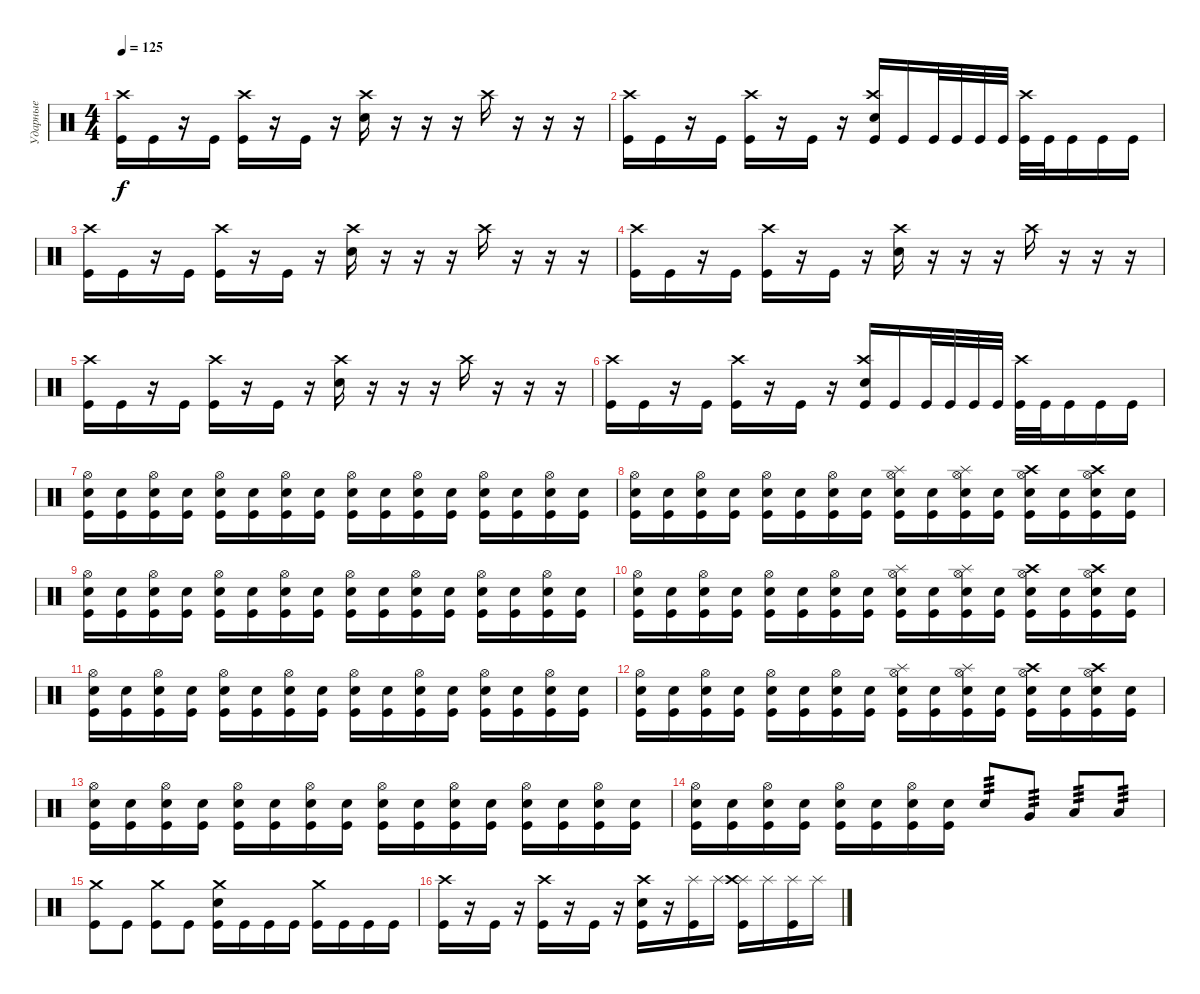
\track ("Ударные" "Ударные") {instrument percussion}
\staff {score}
\articulation defaults
\ts (4 4)
\tempo 125
\clef neutral
\ks c
("Kick (hit)" "Crash high (hit)").16{dy f} "Kick (hit)".16 r.16 "Kick (hit)".16 ("Kick (hit)" "Crash high (hit)").16 r.16 "Kick (hit)".16 r.16 ("Crash high (hit)" "Snare (hit) 2").16 r.16 r.16 r.16 "Crash high (hit)".16 r.16 r.16 r.16 |
("Kick (hit)" "Crash high (hit)").16 "Kick (hit)".16 r.16 "Kick (hit)".16 ("Kick (hit)" "Crash high (hit)").16 r.16 "Kick (hit)".16 r.16 ("Crash high (hit)" "Kick (hit)" "Snare (hit) 2").16 "Kick (hit)".16 "Kick (hit)".32 "Kick (hit)".32 "Kick (hit)".32 "Kick (hit)".32 ("Kick (hit)" "Crash high (hit)").32 "Kick (hit)".32 "Kick (hit)".16 "Kick (hit)".16 "Kick (hit)".16 |
("Kick (hit)" "Crash high (hit)").16 "Kick (hit)".16 r.16 "Kick (hit)".16 ("Kick (hit)" "Crash high (hit)").16 r.16 "Kick (hit)".16 r.16 ("Crash high (hit)" "Snare (hit) 2").16 r.16 r.16 r.16 "Crash high (hit)".16 r.16 r.16 r.16 |
("Kick (hit)" "Crash high (hit)").16 "Kick (hit)".16 r.16 "Kick (hit)".16 ("Kick (hit)" "Crash high (hit)").16 r.16 "Kick (hit)".16 r.16 ("Crash high (hit)" "Snare (hit) 2").16 r.16 r.16 r.16 "Crash high (hit)".16 r.16 r.16 r.16 |
("Kick (hit)" "Crash high (hit)").16 "Kick (hit)".16 r.16 "Kick (hit)".16 ("Kick (hit)" "Crash high (hit)").16 r.16 "Kick (hit)".16 r.16 ("Crash high (hit)" "Snare (hit) 2").16 r.16 r.16 r.16 "Crash high (hit)".16 r.16 r.16 r.16 |
("Kick (hit)" "Crash high (hit)").16 "Kick (hit)".16 r.16 "Kick (hit)".16 ("Kick (hit)" "Crash high (hit)").16 r.16 "Kick (hit)".16 r.16 ("Crash high (hit)" "Kick (hit)" "Snare (hit) 2").16 "Kick (hit)".16 "Kick (hit)".32 "Kick (hit)".32 "Kick (hit)".32 "Kick (hit)".32 ("Kick (hit)" "Crash high (hit)").32 "Kick (hit)".32 "Kick (hit)".16 "Kick (hit)".16 "Kick (hit)".16 |
("Kick (hit)" "Snare (hit) 2" "Hi-Hat (open)").16 ("Kick (hit)" "Snare (hit) 2").16 ("Kick (hit)" "Snare (hit) 2" "Hi-Hat (open)").16 ("Kick (hit)" "Snare (hit) 2").16 ("Kick (hit)" "Snare (hit) 2" "Hi-Hat (open)").16 ("Kick (hit)" "Snare (hit) 2").16 ("Kick (hit)" "Snare (hit) 2" "Hi-Hat (open)").16 ("Kick (hit)" "Snare (hit) 2").16 ("Kick (hit)" "Snare (hit) 2" "Hi-Hat (open)").16 ("Kick (hit)" "Snare (hit) 2").16 ("Kick (hit)" "Snare (hit) 2" "Hi-Hat (open)").16 ("Kick (hit)" "Snare (hit) 2").16 ("Kick (hit)" "Snare (hit) 2" "Hi-Hat (open)").16 ("Kick (hit)" "Snare (hit) 2").16 ("Kick (hit)" "Snare (hit) 2" "Hi-Hat (open)").16 ("Kick (hit)" "Snare (hit) 2").16 |
("Kick (hit)" "Snare (hit) 2" "Hi-Hat (open)").16 ("Kick (hit)" "Snare (hit) 2").16 ("Kick (hit)" "Snare (hit) 2" "Hi-Hat (open)").16 ("Kick (hit)" "Snare (hit) 2").16 ("Kick (hit)" "Snare (hit) 2" "Hi-Hat (open)").16 ("Kick (hit)" "Snare (hit) 2").16 ("Kick (hit)" "Snare (hit) 2" "Hi-Hat (open)").16 ("Kick (hit)" "Snare (hit) 2").16 ("Kick (hit)" "Snare (hit) 2" "Hi-Hat (open)" "Splash (hit)").16 ("Kick (hit)" "Snare (hit) 2").16 ("Kick (hit)" "Snare (hit) 2" "Hi-Hat (open)" "Splash (hit)").16 ("Kick (hit)" "Snare (hit) 2").16 ("Kick (hit)" "Snare (hit) 2" "Hi-Hat (open)" "Crash high (hit)").16 ("Kick (hit)" "Snare (hit) 2").16 ("Kick (hit)" "Snare (hit) 2" "Hi-Hat (open)" "Crash high (hit)").16 ("Kick (hit)" "Snare (hit) 2").16 |
("Kick (hit)" "Snare (hit) 2" "Hi-Hat (open)").16 ("Kick (hit)" "Snare (hit) 2").16 ("Kick (hit)" "Snare (hit) 2" "Hi-Hat (open)").16 ("Kick (hit)" "Snare (hit) 2").16 ("Kick (hit)" "Snare (hit) 2" "Hi-Hat (open)").16 ("Kick (hit)" "Snare (hit) 2").16 ("Kick (hit)" "Snare (hit) 2" "Hi-Hat (open)").16 ("Kick (hit)" "Snare (hit) 2").16 ("Kick (hit)" "Snare (hit) 2" "Hi-Hat (open)").16 ("Kick (hit)" "Snare (hit) 2").16 ("Kick (hit)" "Snare (hit) 2" "Hi-Hat (open)").16 ("Kick (hit)" "Snare (hit) 2").16 ("Kick (hit)" "Snare (hit) 2" "Hi-Hat (open)").16 ("Kick (hit)" "Snare (hit) 2").16 ("Kick (hit)" "Snare (hit) 2" "Hi-Hat (open)").16 ("Kick (hit)" "Snare (hit) 2").16 |
("Kick (hit)" "Snare (hit) 2" "Hi-Hat (open)").16 ("Kick (hit)" "Snare (hit) 2").16 ("Kick (hit)" "Snare (hit) 2" "Hi-Hat (open)").16 ("Kick (hit)" "Snare (hit) 2").16 ("Kick (hit)" "Snare (hit) 2" "Hi-Hat (open)").16 ("Kick (hit)" "Snare (hit) 2").16 ("Kick (hit)" "Snare (hit) 2" "Hi-Hat (open)").16 ("Kick (hit)" "Snare (hit) 2").16 ("Kick (hit)" "Snare (hit) 2" "Hi-Hat (open)" "Splash (hit)").16 ("Kick (hit)" "Snare (hit) 2").16 ("Kick (hit)" "Snare (hit) 2" "Hi-Hat (open)" "Splash (hit)").16 ("Kick (hit)" "Snare (hit) 2").16 ("Kick (hit)" "Snare (hit) 2" "Hi-Hat (open)" "Crash high (hit)").16 ("Kick (hit)" "Snare (hit) 2").16 ("Kick (hit)" "Snare (hit) 2" "Hi-Hat (open)" "Crash high (hit)").16 ("Kick (hit)" "Snare (hit) 2").16 |
("Kick (hit)" "Snare (hit) 2" "Hi-Hat (open)").16 ("Kick (hit)" "Snare (hit) 2").16 ("Kick (hit)" "Snare (hit) 2" "Hi-Hat (open)").16 ("Kick (hit)" "Snare (hit) 2").16 ("Kick (hit)" "Snare (hit) 2" "Hi-Hat (open)").16 ("Kick (hit)" "Snare (hit) 2").16 ("Kick (hit)" "Snare (hit) 2" "Hi-Hat (open)").16 ("Kick (hit)" "Snare (hit) 2").16 ("Kick (hit)" "Snare (hit) 2" "Hi-Hat (open)").16 ("Kick (hit)" "Snare (hit) 2").16 ("Kick (hit)" "Snare (hit) 2" "Hi-Hat (open)").16 ("Kick (hit)" "Snare (hit) 2").16 ("Kick (hit)" "Snare (hit) 2" "Hi-Hat (open)").16 ("Kick (hit)" "Snare (hit) 2").16 ("Kick (hit)" "Snare (hit) 2" "Hi-Hat (open)").16 ("Kick (hit)" "Snare (hit) 2").16 |
("Kick (hit)" "Snare (hit) 2" "Hi-Hat (open)").16 ("Kick (hit)" "Snare (hit) 2").16 ("Kick (hit)" "Snare (hit) 2" "Hi-Hat (open)").16 ("Kick (hit)" "Snare (hit) 2").16 ("Kick (hit)" "Snare (hit) 2" "Hi-Hat (open)").16 ("Kick (hit)" "Snare (hit) 2").16 ("Kick (hit)" "Snare (hit) 2" "Hi-Hat (open)").16 ("Kick (hit)" "Snare (hit) 2").16 ("Kick (hit)" "Snare (hit) 2" "Hi-Hat (open)" "Splash (hit)").16 ("Kick (hit)" "Snare (hit) 2").16 ("Kick (hit)" "Snare (hit) 2" "Hi-Hat (open)" "Splash (hit)").16 ("Kick (hit)" "Snare (hit) 2").16 ("Kick (hit)" "Snare (hit) 2" "Hi-Hat (open)" "Crash high (hit)").16 ("Kick (hit)" "Snare (hit) 2").16 ("Kick (hit)" "Snare (hit) 2" "Hi-Hat (open)" "Crash high (hit)").16 ("Kick (hit)" "Snare (hit) 2").16 |
("Kick (hit)" "Snare (hit) 2" "Hi-Hat (open)").16 ("Kick (hit)" "Snare (hit) 2").16 ("Kick (hit)" "Snare (hit) 2" "Hi-Hat (open)").16 ("Kick (hit)" "Snare (hit) 2").16 ("Kick (hit)" "Snare (hit) 2" "Hi-Hat (open)").16 ("Kick (hit)" "Snare (hit) 2").16 ("Kick (hit)" "Snare (hit) 2" "Hi-Hat (open)").16 ("Kick (hit)" "Snare (hit) 2").16 ("Kick (hit)" "Snare (hit) 2" "Hi-Hat (open)").16 ("Kick (hit)" "Snare (hit) 2").16 ("Kick (hit)" "Snare (hit) 2" "Hi-Hat (open)").16 ("Kick (hit)" "Snare (hit) 2").16 ("Kick (hit)" "Snare (hit) 2" "Hi-Hat (open)").16 ("Kick (hit)" "Snare (hit) 2").16 ("Kick (hit)" "Snare (hit) 2" "Hi-Hat (open)").16 ("Kick (hit)" "Snare (hit) 2").16 |
("Kick (hit)" "Snare (hit) 2" "Hi-Hat (open)").16 ("Kick (hit)" "Snare (hit) 2").16 ("Kick (hit)" "Snare (hit) 2" "Hi-Hat (open)").16 ("Kick (hit)" "Snare (hit) 2").16 ("Kick (hit)" "Snare (hit) 2" "Hi-Hat (open)").16 ("Kick (hit)" "Snare (hit) 2").16 ("Kick (hit)" "Snare (hit) 2" "Hi-Hat (open)").16 ("Kick (hit)" "Snare (hit) 2").16 "Snare (hit) 2".8{tp 3} "Very Low Tom (hit)".8{tp 3} "Low Tom (hit)".8{tp 3} "Low Tom (hit)".8{tp 3} |
("Kick (hit)" "Crash medium (hit)").8 "Kick (hit)".8 ("Kick (hit)" "Crash medium (hit)").8 "Kick (hit)".8 ("Kick (hit)" "Snare (hit) 2" "Crash medium (hit)").16 "Kick (hit)".16 "Kick (hit)".16 "Kick (hit)".16 ("Kick (hit)" "Crash medium (hit)").16 "Kick (hit)".16 "Kick (hit)".16 "Kick (hit)".16 |
("Kick (hit)" "Crash high (hit)").16 r.16 "Kick (hit)".16 r.16 ("Kick (hit)" "Crash high (hit)").16 r.16 "Kick (hit)".16 r.16 ("Kick (hit)" "Snare (hit) 2" "Crash high (hit)").16 r.16 ("Kick (hit)" "Splash (hit)").16 "Splash (hit)".16 ("Kick (hit)" "Splash (hit)" "Crash high (hit)").16 "Splash (hit)".16 ("Kick (hit)" "Splash (hit)").16 "Splash (hit)".16
